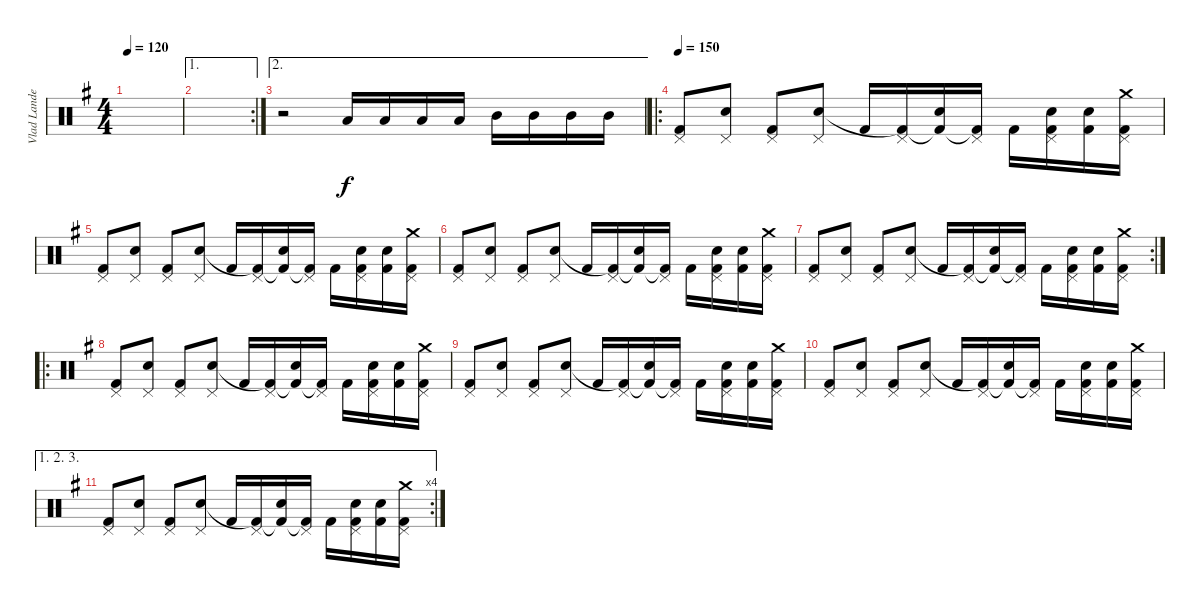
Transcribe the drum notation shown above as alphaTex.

\track ("Vlad Landeros" "Vlad Lande") {instrument percussion}
\staff {score}
\articulation defaults
\ts (4 4)
\tempo 120
\clef neutral
\ks eminor
|
\ae 1
\rc 2
|
\ae 2
r.2 "Low Tom (hit)".16 "Low Tom (hit)".16 "Low Tom (hit)".16 "Low Tom (hit)".16 "Mid Tom (hit)".16 "Mid Tom (hit)".16 "Mid Tom (hit)".16 "Mid Tom (hit)".16 |
\ro
\tempo 150
("Pedal Hi-Hat (hit)" "Kick (hit) 2").8 ("Pedal Hi-Hat (hit)" "Snare (hit) 2").8 ("Pedal Hi-Hat (hit)" "Kick (hit) 2").8 ("Pedal Hi-Hat (hit)" "Snare (hit) 2").8 "Kick (hit) 2".16 ("Pedal Hi-Hat (hit)" "Kick (hit) 2"{t}).16 ("Snare (hit) 2" "Kick (hit) 2"{t}).16 ("Pedal Hi-Hat (hit)" "Kick (hit) 2"{t}).16 "Kick (hit) 2".16 ("Pedal Hi-Hat (hit)" "Snare (hit) 2" "Kick (hit) 2").16 ("Snare (hit) 2" "Kick (hit) 2").16 ("Crash medium (hit)" "Pedal Hi-Hat (hit)" "Kick (hit) 2").16 |
("Pedal Hi-Hat (hit)" "Kick (hit) 2").8 ("Pedal Hi-Hat (hit)" "Snare (hit) 2").8 ("Pedal Hi-Hat (hit)" "Kick (hit) 2").8 ("Pedal Hi-Hat (hit)" "Snare (hit) 2").8 "Kick (hit) 2".16 ("Pedal Hi-Hat (hit)" "Kick (hit) 2"{t}).16 ("Snare (hit) 2" "Kick (hit) 2"{t}).16 ("Pedal Hi-Hat (hit)" "Kick (hit) 2"{t}).16 "Kick (hit) 2".16 ("Pedal Hi-Hat (hit)" "Snare (hit) 2" "Kick (hit) 2").16 ("Snare (hit) 2" "Kick (hit) 2").16 ("Crash medium (hit)" "Pedal Hi-Hat (hit)" "Kick (hit) 2").16 |
("Pedal Hi-Hat (hit)" "Kick (hit) 2").8 ("Pedal Hi-Hat (hit)" "Snare (hit) 2").8 ("Pedal Hi-Hat (hit)" "Kick (hit) 2").8 ("Pedal Hi-Hat (hit)" "Snare (hit) 2").8 "Kick (hit) 2".16 ("Pedal Hi-Hat (hit)" "Kick (hit) 2"{t}).16 ("Snare (hit) 2" "Kick (hit) 2"{t}).16 ("Pedal Hi-Hat (hit)" "Kick (hit) 2"{t}).16 "Kick (hit) 2".16 ("Pedal Hi-Hat (hit)" "Snare (hit) 2" "Kick (hit) 2").16 ("Snare (hit) 2" "Kick (hit) 2").16 ("Crash medium (hit)" "Pedal Hi-Hat (hit)" "Kick (hit) 2").16 |
\rc 2
("Pedal Hi-Hat (hit)" "Kick (hit) 2").8 ("Pedal Hi-Hat (hit)" "Snare (hit) 2").8 ("Pedal Hi-Hat (hit)" "Kick (hit) 2").8 ("Pedal Hi-Hat (hit)" "Snare (hit) 2").8 "Kick (hit) 2".16 ("Pedal Hi-Hat (hit)" "Kick (hit) 2"{t}).16 ("Snare (hit) 2" "Kick (hit) 2"{t}).16 ("Pedal Hi-Hat (hit)" "Kick (hit) 2"{t}).16 "Kick (hit) 2".16 ("Pedal Hi-Hat (hit)" "Snare (hit) 2" "Kick (hit) 2").16 ("Snare (hit) 2" "Kick (hit) 2").16 ("Crash medium (hit)" "Pedal Hi-Hat (hit)" "Kick (hit) 2").16 |
\ro
("Pedal Hi-Hat (hit)" "Kick (hit) 2").8 ("Pedal Hi-Hat (hit)" "Snare (hit) 2").8 ("Pedal Hi-Hat (hit)" "Kick (hit) 2").8 ("Pedal Hi-Hat (hit)" "Snare (hit) 2").8 "Kick (hit) 2".16 ("Pedal Hi-Hat (hit)" "Kick (hit) 2"{t}).16 ("Snare (hit) 2" "Kick (hit) 2"{t}).16 ("Pedal Hi-Hat (hit)" "Kick (hit) 2"{t}).16 "Kick (hit) 2".16 ("Pedal Hi-Hat (hit)" "Snare (hit) 2" "Kick (hit) 2").16 ("Snare (hit) 2" "Kick (hit) 2").16 ("Crash medium (hit)" "Pedal Hi-Hat (hit)" "Kick (hit) 2").16 |
("Pedal Hi-Hat (hit)" "Kick (hit) 2").8 ("Pedal Hi-Hat (hit)" "Snare (hit) 2").8 ("Pedal Hi-Hat (hit)" "Kick (hit) 2").8 ("Pedal Hi-Hat (hit)" "Snare (hit) 2").8 "Kick (hit) 2".16 ("Pedal Hi-Hat (hit)" "Kick (hit) 2"{t}).16 ("Snare (hit) 2" "Kick (hit) 2"{t}).16 ("Pedal Hi-Hat (hit)" "Kick (hit) 2"{t}).16 "Kick (hit) 2".16 ("Pedal Hi-Hat (hit)" "Snare (hit) 2" "Kick (hit) 2").16 ("Snare (hit) 2" "Kick (hit) 2").16 ("Crash medium (hit)" "Pedal Hi-Hat (hit)" "Kick (hit) 2").16 |
("Pedal Hi-Hat (hit)" "Kick (hit) 2").8 ("Pedal Hi-Hat (hit)" "Snare (hit) 2").8 ("Pedal Hi-Hat (hit)" "Kick (hit) 2").8 ("Pedal Hi-Hat (hit)" "Snare (hit) 2").8 "Kick (hit) 2".16 ("Pedal Hi-Hat (hit)" "Kick (hit) 2"{t}).16 ("Snare (hit) 2" "Kick (hit) 2"{t}).16 ("Pedal Hi-Hat (hit)" "Kick (hit) 2"{t}).16 "Kick (hit) 2".16 ("Pedal Hi-Hat (hit)" "Snare (hit) 2" "Kick (hit) 2").16 ("Snare (hit) 2" "Kick (hit) 2").16 ("Crash medium (hit)" "Pedal Hi-Hat (hit)" "Kick (hit) 2").16 |
\ae (1 2 3)
\rc 4
("Pedal Hi-Hat (hit)" "Kick (hit) 2").8 ("Pedal Hi-Hat (hit)" "Snare (hit) 2").8 ("Pedal Hi-Hat (hit)" "Kick (hit) 2").8 ("Pedal Hi-Hat (hit)" "Snare (hit) 2").8 "Kick (hit) 2".16 ("Pedal Hi-Hat (hit)" "Kick (hit) 2"{t}).16 ("Snare (hit) 2" "Kick (hit) 2"{t}).16 ("Pedal Hi-Hat (hit)" "Kick (hit) 2"{t}).16 "Kick (hit) 2".16 ("Pedal Hi-Hat (hit)" "Snare (hit) 2" "Kick (hit) 2").16 ("Snare (hit) 2" "Kick (hit) 2").16 ("Crash medium (hit)" "Pedal Hi-Hat (hit)" "Kick (hit) 2").16
